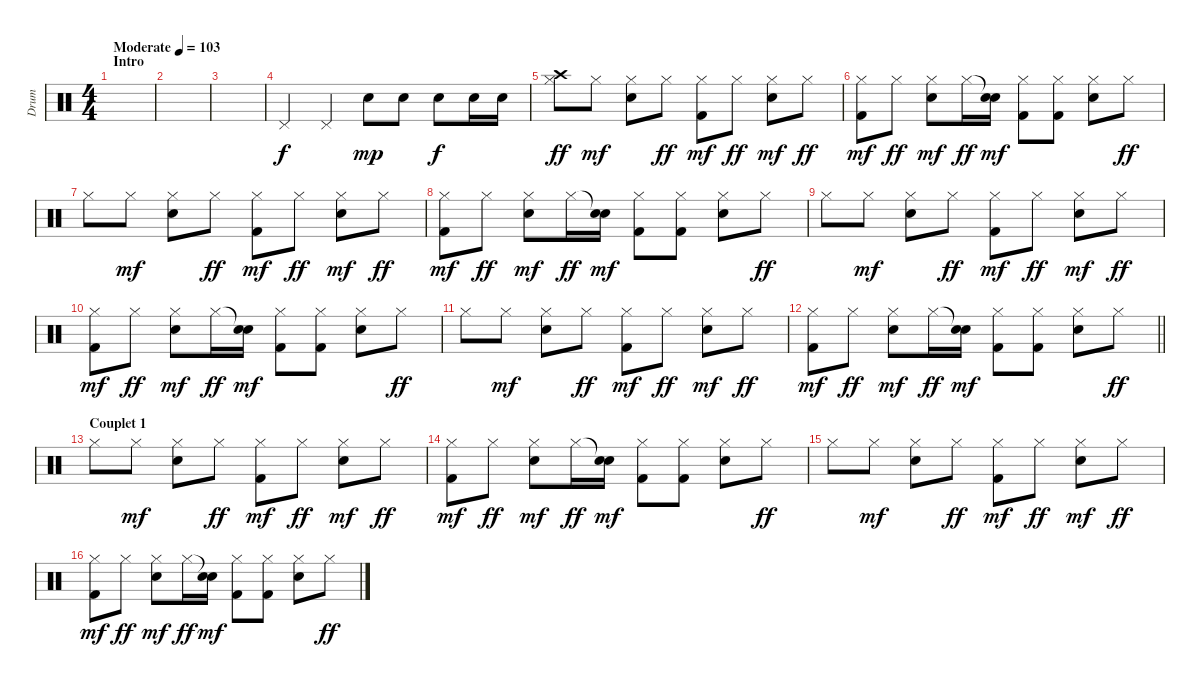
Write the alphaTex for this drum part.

\track ("Drum" "Drum") {instrument percussion}
\staff {score}
\articulation defaults
\ts (4 4)
\section ("" "Intro")
\tempo (103 "Moderate")
\clef neutral
\ks c
|
|
|
"Pedal Hi-Hat (hit)".4 "Pedal Hi-Hat (hit)".4 "Electric Snare (hit)".8{dy mp} "Electric Snare (hit)".8 "Electric Snare (hit)".8{dy f} "Electric Snare (hit)".16 "Electric Snare (hit)".16 |
("Crash high (hit)" "Hi-Hat (closed)").8{dy ff} "Hi-Hat (closed)".8{dy mf} ("Hi-Hat (closed)" "Electric Snare (hit)").8 "Hi-Hat (closed)".8{dy ff} ("Hi-Hat (closed)" "Kick (hit) 2").8{dy mf} "Hi-Hat (closed)".8{dy ff} ("Hi-Hat (closed)" "Electric Snare (hit)").8{dy mf} "Hi-Hat (closed)".8{dy ff} |
("Hi-Hat (closed)" "Kick (hit) 2").8{dy mf} "Hi-Hat (closed)".8{dy ff} ("Hi-Hat (closed)" "Electric Snare (hit)").8{dy mf} "Hi-Hat (closed)".16{dy ff} ("Snare (hit)"{t} "Electric Snare (hit)").16{dy mf} ("Hi-Hat (closed)" "Kick (hit) 2").8 ("Hi-Hat (closed)" "Kick (hit) 2").8 ("Hi-Hat (closed)" "Electric Snare (hit)").8 "Hi-Hat (closed)".8{dy ff} |
"Hi-Hat (closed)".8 "Hi-Hat (closed)".8{dy mf} ("Hi-Hat (closed)" "Electric Snare (hit)").8 "Hi-Hat (closed)".8{dy ff} ("Hi-Hat (closed)" "Kick (hit) 2").8{dy mf} "Hi-Hat (closed)".8{dy ff} ("Hi-Hat (closed)" "Electric Snare (hit)").8{dy mf} "Hi-Hat (closed)".8{dy ff} |
("Hi-Hat (closed)" "Kick (hit) 2").8{dy mf} "Hi-Hat (closed)".8{dy ff} ("Hi-Hat (closed)" "Electric Snare (hit)").8{dy mf} "Hi-Hat (closed)".16{dy ff} ("Snare (hit)"{t} "Electric Snare (hit)").16{dy mf} ("Hi-Hat (closed)" "Kick (hit) 2").8 ("Hi-Hat (closed)" "Kick (hit) 2").8 ("Hi-Hat (closed)" "Electric Snare (hit)").8 "Hi-Hat (closed)".8{dy ff} |
"Hi-Hat (closed)".8 "Hi-Hat (closed)".8{dy mf} ("Hi-Hat (closed)" "Electric Snare (hit)").8 "Hi-Hat (closed)".8{dy ff} ("Hi-Hat (closed)" "Kick (hit) 2").8{dy mf} "Hi-Hat (closed)".8{dy ff} ("Hi-Hat (closed)" "Electric Snare (hit)").8{dy mf} "Hi-Hat (closed)".8{dy ff} |
("Hi-Hat (closed)" "Kick (hit) 2").8{dy mf} "Hi-Hat (closed)".8{dy ff} ("Hi-Hat (closed)" "Electric Snare (hit)").8{dy mf} "Hi-Hat (closed)".16{dy ff} ("Snare (hit)"{t} "Electric Snare (hit)").16{dy mf} ("Hi-Hat (closed)" "Kick (hit) 2").8 ("Hi-Hat (closed)" "Kick (hit) 2").8 ("Hi-Hat (closed)" "Electric Snare (hit)").8 "Hi-Hat (closed)".8{dy ff} |
"Hi-Hat (closed)".8 "Hi-Hat (closed)".8{dy mf} ("Hi-Hat (closed)" "Electric Snare (hit)").8 "Hi-Hat (closed)".8{dy ff} ("Hi-Hat (closed)" "Kick (hit) 2").8{dy mf} "Hi-Hat (closed)".8{dy ff} ("Hi-Hat (closed)" "Electric Snare (hit)").8{dy mf} "Hi-Hat (closed)".8{dy ff} |
\barLineRight lightlight
("Hi-Hat (closed)" "Kick (hit) 2").8{dy mf} "Hi-Hat (closed)".8{dy ff} ("Hi-Hat (closed)" "Electric Snare (hit)").8{dy mf} "Hi-Hat (closed)".16{dy ff} ("Snare (hit)"{t} "Electric Snare (hit)").16{dy mf} ("Hi-Hat (closed)" "Kick (hit) 2").8 ("Hi-Hat (closed)" "Kick (hit) 2").8 ("Hi-Hat (closed)" "Electric Snare (hit)").8 "Hi-Hat (closed)".8{dy ff} |
\section ("" "Couplet 1")
"Hi-Hat (closed)".8 "Hi-Hat (closed)".8{dy mf} ("Hi-Hat (closed)" "Electric Snare (hit)").8 "Hi-Hat (closed)".8{dy ff} ("Hi-Hat (closed)" "Kick (hit) 2").8{dy mf} "Hi-Hat (closed)".8{dy ff} ("Hi-Hat (closed)" "Electric Snare (hit)").8{dy mf} "Hi-Hat (closed)".8{dy ff} |
("Hi-Hat (closed)" "Kick (hit) 2").8{dy mf} "Hi-Hat (closed)".8{dy ff} ("Hi-Hat (closed)" "Electric Snare (hit)").8{dy mf} "Hi-Hat (closed)".16{dy ff} ("Snare (hit)"{t} "Electric Snare (hit)").16{dy mf} ("Hi-Hat (closed)" "Kick (hit) 2").8 ("Hi-Hat (closed)" "Kick (hit) 2").8 ("Hi-Hat (closed)" "Electric Snare (hit)").8 "Hi-Hat (closed)".8{dy ff} |
"Hi-Hat (closed)".8 "Hi-Hat (closed)".8{dy mf} ("Hi-Hat (closed)" "Electric Snare (hit)").8 "Hi-Hat (closed)".8{dy ff} ("Hi-Hat (closed)" "Kick (hit) 2").8{dy mf} "Hi-Hat (closed)".8{dy ff} ("Hi-Hat (closed)" "Electric Snare (hit)").8{dy mf} "Hi-Hat (closed)".8{dy ff} |
("Hi-Hat (closed)" "Kick (hit) 2").8{dy mf} "Hi-Hat (closed)".8{dy ff} ("Hi-Hat (closed)" "Electric Snare (hit)").8{dy mf} "Hi-Hat (closed)".16{dy ff} ("Snare (hit)"{t} "Electric Snare (hit)").16{dy mf} ("Hi-Hat (closed)" "Kick (hit) 2").8 ("Hi-Hat (closed)" "Kick (hit) 2").8 ("Hi-Hat (closed)" "Electric Snare (hit)").8 "Hi-Hat (closed)".8{dy ff}
